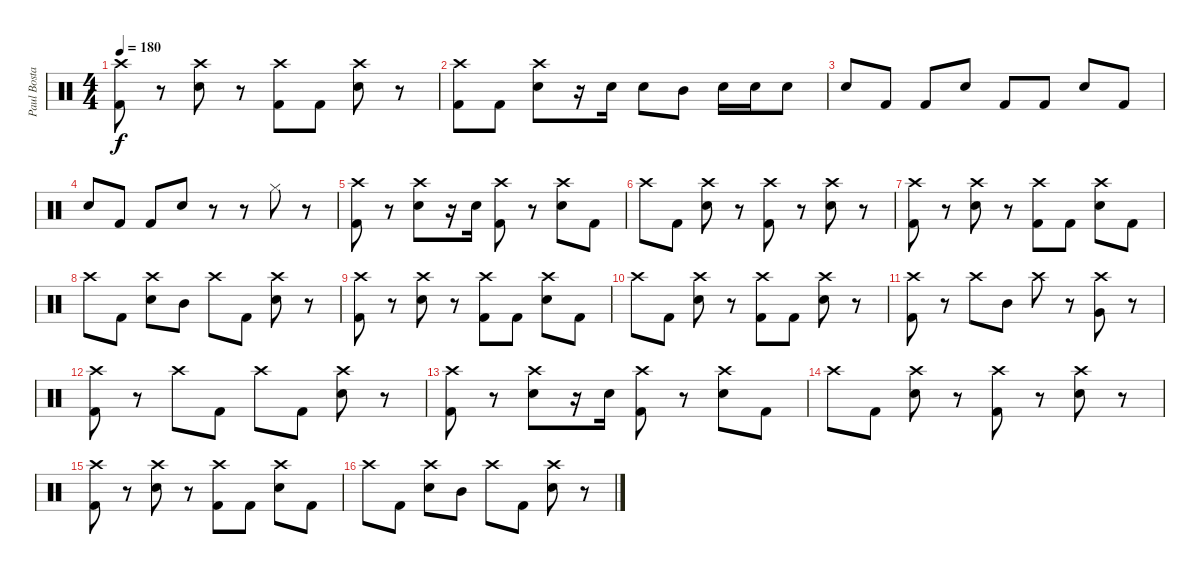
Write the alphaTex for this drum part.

\track ("Paul Bostaph" "Paul Bosta") {instrument percussion}
\staff {score}
\articulation defaults
\ts (4 4)
\tempo 180
\clef neutral
\ks c
("Crash high (hit)" "Kick (hit) 2").8{dy f} r.8 ("Crash high (hit)" "Electric Snare (hit)").8 r.8 ("Crash high (hit)" "Kick (hit) 2").8 "Kick (hit) 2".8 ("Crash high (hit)" "Electric Snare (hit)").8 r.8 |
("Crash high (hit)" "Kick (hit) 2").8 "Kick (hit) 2".8 ("Crash high (hit)" "Electric Snare (hit)").8 r.16 "Electric Snare (hit)".16 "Electric Snare (hit)".8 "Mid Tom (hit)".8 "Electric Snare (hit)".16 "Electric Snare (hit)".16 "Electric Snare (hit)".8 |
"Electric Snare (hit)".8 "Kick (hit) 2".8 "Kick (hit) 2".8 "Electric Snare (hit)".8 "Kick (hit) 2".8 "Kick (hit) 2".8 "Electric Snare (hit)".8 "Kick (hit) 2".8 |
"Electric Snare (hit)".8 "Kick (hit) 2".8 "Kick (hit) 2".8 "Electric Snare (hit)".8 r.8 r.8 "Hi-Hat (closed)".8 r.8 |
("Crash high (hit)" "Kick (hit) 2").8 r.8 ("Crash high (hit)" "Electric Snare (hit)").8 r.16 "Electric Snare (hit)".16 ("Crash high (hit)" "Kick (hit) 2").8 r.8 ("Crash high (hit)" "Electric Snare (hit)").8 "Kick (hit) 2".8 |
"Crash high (hit)".8 "Kick (hit) 2".8 ("Crash high (hit)" "Electric Snare (hit)").8 r.8 ("Crash high (hit)" "Kick (hit) 2").8 r.8 ("Crash high (hit)" "Electric Snare (hit)").8 r.8 |
("Crash high (hit)" "Kick (hit) 2").8 r.8 ("Crash high (hit)" "Electric Snare (hit)").8 r.8 ("Crash high (hit)" "Kick (hit) 2").8 "Kick (hit) 2".8 ("Crash high (hit)" "Electric Snare (hit)").8 "Kick (hit) 2".8 |
"Crash high (hit)".8 "Kick (hit) 2".8 ("Crash high (hit)" "Electric Snare (hit)").8 "Mid Tom (hit)".8 "Crash high (hit)".8 "Kick (hit) 2".8 ("Crash high (hit)" "Electric Snare (hit)").8 r.8 |
("Crash high (hit)" "Kick (hit) 2").8 r.8 ("Crash high (hit)" "Electric Snare (hit)").8 r.8 ("Crash high (hit)" "Kick (hit) 2").8 "Kick (hit) 2".8 ("Crash high (hit)" "Electric Snare (hit)").8 "Kick (hit) 2".8 |
"Crash high (hit)".8 "Kick (hit) 2".8 ("Crash high (hit)" "Electric Snare (hit)").8 r.8 ("Crash high (hit)" "Kick (hit) 2").8 "Kick (hit) 2".8 ("Crash high (hit)" "Electric Snare (hit)").8 r.8 |
("Crash high (hit)" "Kick (hit) 2").8 r.8 "Crash high (hit)".8 "Mid Tom (hit)".8 "Crash high (hit)".8 r.8 ("Crash high (hit)" "Very Low Tom (hit)").8 r.8 |
("Crash high (hit)" "Kick (hit) 2").8 r.8 "Crash high (hit)".8 "Kick (hit) 2".8 "Crash high (hit)".8 "Kick (hit) 2".8 ("Crash high (hit)" "Electric Snare (hit)").8 r.8 |
("Crash high (hit)" "Kick (hit) 2").8 r.8 ("Crash high (hit)" "Electric Snare (hit)").8 r.16 "Electric Snare (hit)".16 ("Crash high (hit)" "Kick (hit) 2").8 r.8 ("Crash high (hit)" "Electric Snare (hit)").8 "Kick (hit) 2".8 |
"Crash high (hit)".8 "Kick (hit) 2".8 ("Crash high (hit)" "Electric Snare (hit)").8 r.8 ("Crash high (hit)" "Kick (hit) 2").8 r.8 ("Crash high (hit)" "Electric Snare (hit)").8 r.8 |
("Crash high (hit)" "Kick (hit) 2").8 r.8 ("Crash high (hit)" "Electric Snare (hit)").8 r.8 ("Crash high (hit)" "Kick (hit) 2").8 "Kick (hit) 2".8 ("Crash high (hit)" "Electric Snare (hit)").8 "Kick (hit) 2".8 |
"Crash high (hit)".8 "Kick (hit) 2".8 ("Crash high (hit)" "Electric Snare (hit)").8 "Mid Tom (hit)".8 "Crash high (hit)".8 "Kick (hit) 2".8 ("Crash high (hit)" "Electric Snare (hit)").8 r.8
